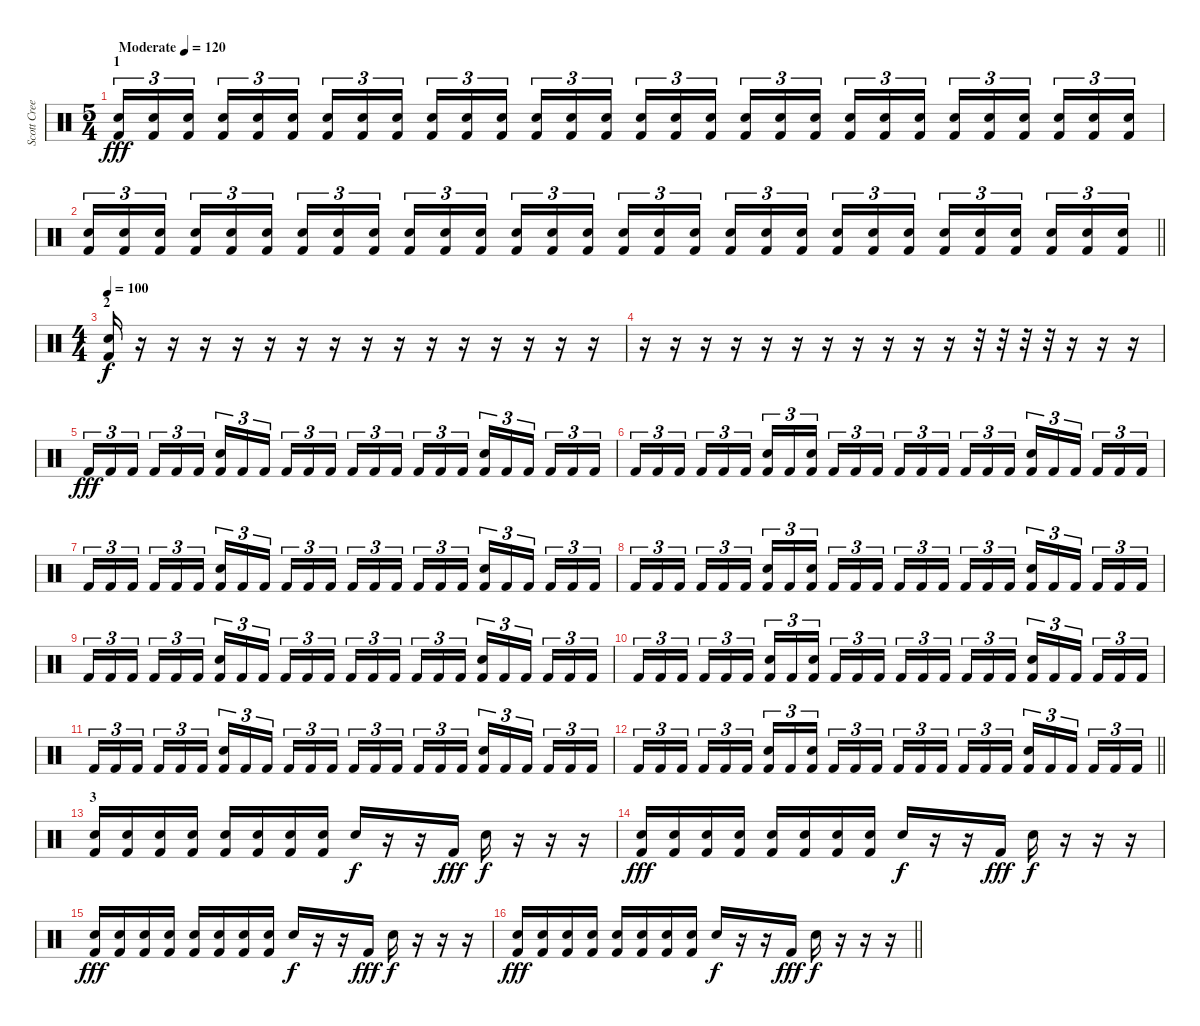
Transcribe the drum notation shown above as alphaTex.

\track ("Scott Creekmore" "Scott Cree") {instrument percussion}
\staff {score}
\articulation defaults
\ts (5 4)
\section ("" "1")
\tempo (120 "Moderate")
\tempo 80
\tempo (120 "Moderate")
\clef neutral
\ks c
("Electric Snare (hit)" "Kick (hit) 2").16{tu (3 2) dy fff} ("Electric Snare (hit)" "Kick (hit) 2").16{tu (3 2)} ("Electric Snare (hit)" "Kick (hit) 2").16{tu (3 2) beam splitsecondary} ("Electric Snare (hit)" "Kick (hit) 2").16{tu (3 2)} ("Electric Snare (hit)" "Kick (hit) 2").16{tu (3 2)} ("Electric Snare (hit)" "Kick (hit) 2").16{tu (3 2)} ("Electric Snare (hit)" "Kick (hit) 2").16{tu (3 2)} ("Electric Snare (hit)" "Kick (hit) 2").16{tu (3 2)} ("Electric Snare (hit)" "Kick (hit) 2").16{tu (3 2) beam splitsecondary} ("Electric Snare (hit)" "Kick (hit) 2").16{tu (3 2)} ("Electric Snare (hit)" "Kick (hit) 2").16{tu (3 2)} ("Electric Snare (hit)" "Kick (hit) 2").16{tu (3 2)} ("Electric Snare (hit)" "Kick (hit) 2").16{tu (3 2)} ("Electric Snare (hit)" "Kick (hit) 2").16{tu (3 2)} ("Electric Snare (hit)" "Kick (hit) 2").16{tu (3 2) beam splitsecondary} ("Electric Snare (hit)" "Kick (hit) 2").16{tu (3 2)} ("Electric Snare (hit)" "Kick (hit) 2").16{tu (3 2)} ("Electric Snare (hit)" "Kick (hit) 2").16{tu (3 2)} ("Electric Snare (hit)" "Kick (hit) 2").16{tu (3 2)} ("Electric Snare (hit)" "Kick (hit) 2").16{tu (3 2)} ("Electric Snare (hit)" "Kick (hit) 2").16{tu (3 2) beam splitsecondary} ("Electric Snare (hit)" "Kick (hit) 2").16{tu (3 2)} ("Electric Snare (hit)" "Kick (hit) 2").16{tu (3 2)} ("Electric Snare (hit)" "Kick (hit) 2").16{tu (3 2)} ("Electric Snare (hit)" "Kick (hit) 2").16{tu (3 2)} ("Electric Snare (hit)" "Kick (hit) 2").16{tu (3 2)} ("Electric Snare (hit)" "Kick (hit) 2").16{tu (3 2) beam splitsecondary} ("Electric Snare (hit)" "Kick (hit) 2").16{tu (3 2)} ("Electric Snare (hit)" "Kick (hit) 2").16{tu (3 2)} ("Electric Snare (hit)" "Kick (hit) 2").16{tu (3 2)} |
\barLineRight lightlight
("Electric Snare (hit)" "Kick (hit) 2").16{tu (3 2)} ("Electric Snare (hit)" "Kick (hit) 2").16{tu (3 2)} ("Electric Snare (hit)" "Kick (hit) 2").16{tu (3 2) beam splitsecondary} ("Electric Snare (hit)" "Kick (hit) 2").16{tu (3 2)} ("Electric Snare (hit)" "Kick (hit) 2").16{tu (3 2)} ("Electric Snare (hit)" "Kick (hit) 2").16{tu (3 2)} ("Electric Snare (hit)" "Kick (hit) 2").16{tu (3 2)} ("Electric Snare (hit)" "Kick (hit) 2").16{tu (3 2)} ("Electric Snare (hit)" "Kick (hit) 2").16{tu (3 2) beam splitsecondary} ("Electric Snare (hit)" "Kick (hit) 2").16{tu (3 2)} ("Electric Snare (hit)" "Kick (hit) 2").16{tu (3 2)} ("Electric Snare (hit)" "Kick (hit) 2").16{tu (3 2)} ("Electric Snare (hit)" "Kick (hit) 2").16{tu (3 2)} ("Electric Snare (hit)" "Kick (hit) 2").16{tu (3 2)} ("Electric Snare (hit)" "Kick (hit) 2").16{tu (3 2) beam splitsecondary} ("Electric Snare (hit)" "Kick (hit) 2").16{tu (3 2)} ("Electric Snare (hit)" "Kick (hit) 2").16{tu (3 2)} ("Electric Snare (hit)" "Kick (hit) 2").16{tu (3 2)} ("Electric Snare (hit)" "Kick (hit) 2").16{tu (3 2)} ("Electric Snare (hit)" "Kick (hit) 2").16{tu (3 2)} ("Electric Snare (hit)" "Kick (hit) 2").16{tu (3 2) beam splitsecondary} ("Electric Snare (hit)" "Kick (hit) 2").16{tu (3 2)} ("Electric Snare (hit)" "Kick (hit) 2").16{tu (3 2)} ("Electric Snare (hit)" "Kick (hit) 2").16{tu (3 2)} ("Electric Snare (hit)" "Kick (hit) 2").16{tu (3 2)} ("Electric Snare (hit)" "Kick (hit) 2").16{tu (3 2)} ("Electric Snare (hit)" "Kick (hit) 2").16{tu (3 2) beam splitsecondary} ("Electric Snare (hit)" "Kick (hit) 2").16{tu (3 2)} ("Electric Snare (hit)" "Kick (hit) 2").16{tu (3 2)} ("Electric Snare (hit)" "Kick (hit) 2").16{tu (3 2)} |
\ts (4 4)
\section ("" "2")
\tempo 100
("Electric Snare (hit)" "Kick (hit) 2").16{dy f} r.16 r.16 r.16 r.16 r.16 r.16 r.16 r.16 r.16 r.16 r.16 r.16 r.16 r.16 r.16 |
r.16 r.16 r.16 r.16 r.16 r.16 r.16 r.16 r.16 r.16 r.16 r.32 r.32 r.32 r.32 r.16 r.16 r.16 |
"Kick (hit) 2".16{tu (3 2) dy fff} "Kick (hit) 2".16{tu (3 2)} "Kick (hit) 2".16{tu (3 2) beam splitsecondary} "Kick (hit) 2".16{tu (3 2)} "Kick (hit) 2".16{tu (3 2)} "Kick (hit) 2".16{tu (3 2)} ("Electric Snare (hit)" "Kick (hit) 2").16{tu (3 2)} "Kick (hit) 2".16{tu (3 2)} "Kick (hit) 2".16{tu (3 2) beam splitsecondary} "Kick (hit) 2".16{tu (3 2)} "Kick (hit) 2".16{tu (3 2)} "Kick (hit) 2".16{tu (3 2)} "Kick (hit) 2".16{tu (3 2)} "Kick (hit) 2".16{tu (3 2)} "Kick (hit) 2".16{tu (3 2) beam splitsecondary} "Kick (hit) 2".16{tu (3 2)} "Kick (hit) 2".16{tu (3 2)} "Kick (hit) 2".16{tu (3 2)} ("Electric Snare (hit)" "Kick (hit) 2").16{tu (3 2)} "Kick (hit) 2".16{tu (3 2)} "Kick (hit) 2".16{tu (3 2) beam splitsecondary} "Kick (hit) 2".16{tu (3 2)} "Kick (hit) 2".16{tu (3 2)} "Kick (hit) 2".16{tu (3 2)} |
"Kick (hit) 2".16{tu (3 2)} "Kick (hit) 2".16{tu (3 2)} "Kick (hit) 2".16{tu (3 2) beam splitsecondary} "Kick (hit) 2".16{tu (3 2)} "Kick (hit) 2".16{tu (3 2)} "Kick (hit) 2".16{tu (3 2)} ("Electric Snare (hit)" "Kick (hit) 2").16{tu (3 2)} "Kick (hit) 2".16{tu (3 2)} ("Electric Snare (hit)" "Kick (hit) 2").16{tu (3 2) beam splitsecondary} "Kick (hit) 2".16{tu (3 2)} "Kick (hit) 2".16{tu (3 2)} "Kick (hit) 2".16{tu (3 2)} "Kick (hit) 2".16{tu (3 2)} "Kick (hit) 2".16{tu (3 2)} "Kick (hit) 2".16{tu (3 2) beam splitsecondary} "Kick (hit) 2".16{tu (3 2)} "Kick (hit) 2".16{tu (3 2)} "Kick (hit) 2".16{tu (3 2)} ("Electric Snare (hit)" "Kick (hit) 2").16{tu (3 2)} "Kick (hit) 2".16{tu (3 2)} "Kick (hit) 2".16{tu (3 2) beam splitsecondary} "Kick (hit) 2".16{tu (3 2)} "Kick (hit) 2".16{tu (3 2)} "Kick (hit) 2".16{tu (3 2)} |
"Kick (hit) 2".16{tu (3 2)} "Kick (hit) 2".16{tu (3 2)} "Kick (hit) 2".16{tu (3 2) beam splitsecondary} "Kick (hit) 2".16{tu (3 2)} "Kick (hit) 2".16{tu (3 2)} "Kick (hit) 2".16{tu (3 2)} ("Electric Snare (hit)" "Kick (hit) 2").16{tu (3 2)} "Kick (hit) 2".16{tu (3 2)} "Kick (hit) 2".16{tu (3 2) beam splitsecondary} "Kick (hit) 2".16{tu (3 2)} "Kick (hit) 2".16{tu (3 2)} "Kick (hit) 2".16{tu (3 2)} "Kick (hit) 2".16{tu (3 2)} "Kick (hit) 2".16{tu (3 2)} "Kick (hit) 2".16{tu (3 2) beam splitsecondary} "Kick (hit) 2".16{tu (3 2)} "Kick (hit) 2".16{tu (3 2)} "Kick (hit) 2".16{tu (3 2)} ("Electric Snare (hit)" "Kick (hit) 2").16{tu (3 2)} "Kick (hit) 2".16{tu (3 2)} "Kick (hit) 2".16{tu (3 2) beam splitsecondary} "Kick (hit) 2".16{tu (3 2)} "Kick (hit) 2".16{tu (3 2)} "Kick (hit) 2".16{tu (3 2)} |
"Kick (hit) 2".16{tu (3 2)} "Kick (hit) 2".16{tu (3 2)} "Kick (hit) 2".16{tu (3 2) beam splitsecondary} "Kick (hit) 2".16{tu (3 2)} "Kick (hit) 2".16{tu (3 2)} "Kick (hit) 2".16{tu (3 2)} ("Electric Snare (hit)" "Kick (hit) 2").16{tu (3 2)} "Kick (hit) 2".16{tu (3 2)} ("Electric Snare (hit)" "Kick (hit) 2").16{tu (3 2) beam splitsecondary} "Kick (hit) 2".16{tu (3 2)} "Kick (hit) 2".16{tu (3 2)} "Kick (hit) 2".16{tu (3 2)} "Kick (hit) 2".16{tu (3 2)} "Kick (hit) 2".16{tu (3 2)} "Kick (hit) 2".16{tu (3 2) beam splitsecondary} "Kick (hit) 2".16{tu (3 2)} "Kick (hit) 2".16{tu (3 2)} "Kick (hit) 2".16{tu (3 2)} ("Electric Snare (hit)" "Kick (hit) 2").16{tu (3 2)} "Kick (hit) 2".16{tu (3 2)} "Kick (hit) 2".16{tu (3 2) beam splitsecondary} "Kick (hit) 2".16{tu (3 2)} "Kick (hit) 2".16{tu (3 2)} "Kick (hit) 2".16{tu (3 2)} |
"Kick (hit) 2".16{tu (3 2)} "Kick (hit) 2".16{tu (3 2)} "Kick (hit) 2".16{tu (3 2) beam splitsecondary} "Kick (hit) 2".16{tu (3 2)} "Kick (hit) 2".16{tu (3 2)} "Kick (hit) 2".16{tu (3 2)} ("Electric Snare (hit)" "Kick (hit) 2").16{tu (3 2)} "Kick (hit) 2".16{tu (3 2)} "Kick (hit) 2".16{tu (3 2) beam splitsecondary} "Kick (hit) 2".16{tu (3 2)} "Kick (hit) 2".16{tu (3 2)} "Kick (hit) 2".16{tu (3 2)} "Kick (hit) 2".16{tu (3 2)} "Kick (hit) 2".16{tu (3 2)} "Kick (hit) 2".16{tu (3 2) beam splitsecondary} "Kick (hit) 2".16{tu (3 2)} "Kick (hit) 2".16{tu (3 2)} "Kick (hit) 2".16{tu (3 2)} ("Electric Snare (hit)" "Kick (hit) 2").16{tu (3 2)} "Kick (hit) 2".16{tu (3 2)} "Kick (hit) 2".16{tu (3 2) beam splitsecondary} "Kick (hit) 2".16{tu (3 2)} "Kick (hit) 2".16{tu (3 2)} "Kick (hit) 2".16{tu (3 2)} |
"Kick (hit) 2".16{tu (3 2)} "Kick (hit) 2".16{tu (3 2)} "Kick (hit) 2".16{tu (3 2) beam splitsecondary} "Kick (hit) 2".16{tu (3 2)} "Kick (hit) 2".16{tu (3 2)} "Kick (hit) 2".16{tu (3 2)} ("Electric Snare (hit)" "Kick (hit) 2").16{tu (3 2)} "Kick (hit) 2".16{tu (3 2)} ("Electric Snare (hit)" "Kick (hit) 2").16{tu (3 2) beam splitsecondary} "Kick (hit) 2".16{tu (3 2)} "Kick (hit) 2".16{tu (3 2)} "Kick (hit) 2".16{tu (3 2)} "Kick (hit) 2".16{tu (3 2)} "Kick (hit) 2".16{tu (3 2)} "Kick (hit) 2".16{tu (3 2) beam splitsecondary} "Kick (hit) 2".16{tu (3 2)} "Kick (hit) 2".16{tu (3 2)} "Kick (hit) 2".16{tu (3 2)} ("Electric Snare (hit)" "Kick (hit) 2").16{tu (3 2)} "Kick (hit) 2".16{tu (3 2)} "Kick (hit) 2".16{tu (3 2) beam splitsecondary} "Kick (hit) 2".16{tu (3 2)} "Kick (hit) 2".16{tu (3 2)} "Kick (hit) 2".16{tu (3 2)} |
"Kick (hit) 2".16{tu (3 2)} "Kick (hit) 2".16{tu (3 2)} "Kick (hit) 2".16{tu (3 2) beam splitsecondary} "Kick (hit) 2".16{tu (3 2)} "Kick (hit) 2".16{tu (3 2)} "Kick (hit) 2".16{tu (3 2)} ("Electric Snare (hit)" "Kick (hit) 2").16{tu (3 2)} "Kick (hit) 2".16{tu (3 2)} "Kick (hit) 2".16{tu (3 2) beam splitsecondary} "Kick (hit) 2".16{tu (3 2)} "Kick (hit) 2".16{tu (3 2)} "Kick (hit) 2".16{tu (3 2)} "Kick (hit) 2".16{tu (3 2)} "Kick (hit) 2".16{tu (3 2)} "Kick (hit) 2".16{tu (3 2) beam splitsecondary} "Kick (hit) 2".16{tu (3 2)} "Kick (hit) 2".16{tu (3 2)} "Kick (hit) 2".16{tu (3 2)} ("Electric Snare (hit)" "Kick (hit) 2").16{tu (3 2)} "Kick (hit) 2".16{tu (3 2)} "Kick (hit) 2".16{tu (3 2) beam splitsecondary} "Kick (hit) 2".16{tu (3 2)} "Kick (hit) 2".16{tu (3 2)} "Kick (hit) 2".16{tu (3 2)} |
\barLineRight lightlight "Kick (hit) 2".16{tu (3 2)} "Kick (hit) 2".16{tu (3 2)} "Kick (hit) 2".16{tu (3 2) beam splitsecondary} "Kick (hit) 2".16{tu (3 2)} "Kick (hit) 2".16{tu (3 2)} "Kick (hit) 2".16{tu (3 2)}
("Electric Snare (hit)" "Kick (hit) 2").16{tu (3 2)} "Kick (hit) 2".16{tu (3 2)} ("Electric Snare (hit)" "Kick (hit) 2").16{tu (3 2) beam splitsecondary} "Kick (hit) 2".16{tu (3 2)} "Kick (hit) 2".16{tu (3 2)} "Kick (hit) 2".16{tu (3 2)} "Kick (hit) 2".16{tu (3 2)} "Kick (hit) 2".16{tu (3 2)} "Kick (hit) 2".16{tu (3 2) beam splitsecondary} "Kick (hit) 2".16{tu (3 2)} "Kick (hit) 2".16{tu (3 2)} "Kick (hit) 2".16{tu (3 2)} ("Electric Snare (hit)" "Kick (hit) 2").16{tu (3 2)} "Kick (hit) 2".16{tu (3 2)} "Kick (hit) 2".16{tu (3 2) beam splitsecondary} "Kick (hit) 2".16{tu (3 2)} "Kick (hit) 2".16{tu (3 2)} "Kick (hit) 2".16{tu (3 2)} |
\section ("" "3")
("Electric Snare (hit)" "Kick (hit) 2").16 ("Electric Snare (hit)" "Kick (hit) 2").16 ("Electric Snare (hit)" "Kick (hit) 2").16 ("Electric Snare (hit)" "Kick (hit) 2").16 ("Electric Snare (hit)" "Kick (hit) 2").16 ("Electric Snare (hit)" "Kick (hit) 2").16 ("Electric Snare (hit)" "Kick (hit) 2").16 ("Electric Snare (hit)" "Kick (hit) 2").16 "Electric Snare (hit)".16{dy f} r.16 r.16 "Kick (hit) 2".16{dy fff} "Electric Snare (hit)".16{dy f} r.16 r.16 r.16 |
("Electric Snare (hit)" "Kick (hit) 2").16{dy fff} ("Electric Snare (hit)" "Kick (hit) 2").16 ("Electric Snare (hit)" "Kick (hit) 2").16 ("Electric Snare (hit)" "Kick (hit) 2").16 ("Electric Snare (hit)" "Kick (hit) 2").16 ("Electric Snare (hit)" "Kick (hit) 2").16 ("Electric Snare (hit)" "Kick (hit) 2").16 ("Electric Snare (hit)" "Kick (hit) 2").16 "Electric Snare (hit)".16{dy f} r.16 r.16 "Kick (hit) 2".16{dy fff} "Electric Snare (hit)".16{dy f} r.16 r.16 r.16 |
("Electric Snare (hit)" "Kick (hit) 2").16{dy fff} ("Electric Snare (hit)" "Kick (hit) 2").16 ("Electric Snare (hit)" "Kick (hit) 2").16 ("Electric Snare (hit)" "Kick (hit) 2").16 ("Electric Snare (hit)" "Kick (hit) 2").16 ("Electric Snare (hit)" "Kick (hit) 2").16 ("Electric Snare (hit)" "Kick (hit) 2").16 ("Electric Snare (hit)" "Kick (hit) 2").16 "Electric Snare (hit)".16{dy f} r.16 r.16 "Kick (hit) 2".16{dy fff} "Electric Snare (hit)".16{dy f} r.16 r.16 r.16 |
\barLineRight lightlight
("Electric Snare (hit)" "Kick (hit) 2").16{dy fff} ("Electric Snare (hit)" "Kick (hit) 2").16 ("Electric Snare (hit)" "Kick (hit) 2").16 ("Electric Snare (hit)" "Kick (hit) 2").16 ("Electric Snare (hit)" "Kick (hit) 2").16 ("Electric Snare (hit)" "Kick (hit) 2").16 ("Electric Snare (hit)" "Kick (hit) 2").16 ("Electric Snare (hit)" "Kick (hit) 2").16 "Electric Snare (hit)".16{dy f} r.16 r.16 "Kick (hit) 2".16{dy fff} "Electric Snare (hit)".16{dy f} r.16 r.16 r.16
